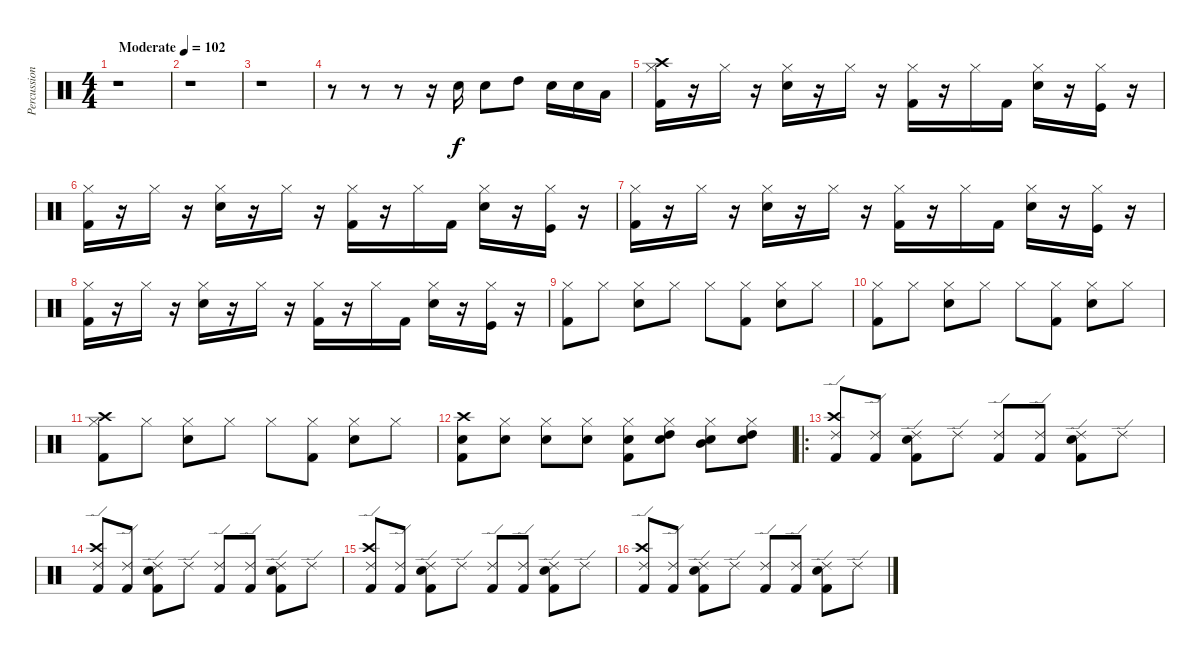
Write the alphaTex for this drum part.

\track ("Percussion" "Percussion") {instrument percussion}
\staff {score}
\articulation defaults
\ts (4 4)
\tempo (102 "Moderate")
\clef neutral
\ks c
r.1{dy f} |
r.1 |
r.1 |
r.8 r.8 r.8 r.16 "Snare (hit) 2".16 "Snare (hit) 2".8 "High Tom (hit)".8 "Snare (hit) 2".16 "Snare (hit) 2".16 "Low Tom (hit)".16 |
("Kick (hit) 2" "Hi-Hat (closed)" "Crash high (hit)").16 r.16 "Hi-Hat (closed)".16 r.16 ("Snare (hit) 2" "Hi-Hat (closed)").16 r.16 "Hi-Hat (closed)".16 r.16 ("Kick (hit) 2" "Hi-Hat (closed)").16 r.16 "Hi-Hat (closed)".16 "Kick (hit) 2".16 ("Snare (hit) 2" "Hi-Hat (closed)").16 r.16 ("Kick (hit)" "Hi-Hat (closed)").16 r.16 |
("Kick (hit) 2" "Hi-Hat (closed)").16 r.16 "Hi-Hat (closed)".16 r.16 ("Snare (hit) 2" "Hi-Hat (closed)").16 r.16 "Hi-Hat (closed)".16 r.16 ("Kick (hit) 2" "Hi-Hat (closed)").16 r.16 "Hi-Hat (closed)".16 "Kick (hit) 2".16 ("Snare (hit) 2" "Hi-Hat (closed)").16 r.16 ("Kick (hit)" "Hi-Hat (closed)").16 r.16 |
("Kick (hit) 2" "Hi-Hat (closed)").16 r.16 "Hi-Hat (closed)".16 r.16 ("Snare (hit) 2" "Hi-Hat (closed)").16 r.16 "Hi-Hat (closed)".16 r.16 ("Kick (hit) 2" "Hi-Hat (closed)").16 r.16 "Hi-Hat (closed)".16 "Kick (hit) 2".16 ("Snare (hit) 2" "Hi-Hat (closed)").16 r.16 ("Kick (hit)" "Hi-Hat (closed)").16 r.16 |
("Kick (hit) 2" "Hi-Hat (closed)").16 r.16 "Hi-Hat (closed)".16 r.16 ("Snare (hit) 2" "Hi-Hat (closed)").16 r.16 "Hi-Hat (closed)".16 r.16 ("Kick (hit) 2" "Hi-Hat (closed)").16 r.16 "Hi-Hat (closed)".16 "Kick (hit) 2".16 ("Snare (hit) 2" "Hi-Hat (closed)").16 r.16 ("Kick (hit)" "Hi-Hat (closed)").16 r.16 |
("Kick (hit) 2" "Hi-Hat (closed)").8 "Hi-Hat (closed)".8 ("Snare (hit) 2" "Hi-Hat (closed)").8 "Hi-Hat (closed)".8 "Hi-Hat (closed)".8 ("Kick (hit) 2" "Hi-Hat (closed)").8 ("Snare (hit) 2" "Hi-Hat (closed)").8 "Hi-Hat (closed)".8 |
("Kick (hit) 2" "Hi-Hat (closed)").8 "Hi-Hat (closed)".8 ("Snare (hit) 2" "Hi-Hat (closed)").8 "Hi-Hat (closed)".8 "Hi-Hat (closed)".8 ("Kick (hit) 2" "Hi-Hat (closed)").8 ("Snare (hit) 2" "Hi-Hat (closed)").8 "Hi-Hat (closed)".8 |
("Kick (hit) 2" "Hi-Hat (closed)" "Crash high (hit)").8 "Hi-Hat (closed)".8 ("Snare (hit) 2" "Hi-Hat (closed)").8 "Hi-Hat (closed)".8 "Hi-Hat (closed)".8 ("Kick (hit) 2" "Hi-Hat (closed)").8 ("Snare (hit) 2" "Hi-Hat (closed)").8 "Hi-Hat (closed)".8 |
("Kick (hit) 2" "Snare (hit) 2" "Crash high (hit)").8 ("Snare (hit) 2" "Hi-Hat (closed)").8 ("Snare (hit) 2" "Hi-Hat (closed)").8 ("Snare (hit) 2" "Hi-Hat (closed)").8 ("Kick (hit) 2" "Snare (hit) 2" "Hi-Hat (closed)").8 ("High Tom (hit)" "Snare (hit) 2" "Hi-Hat (closed)").8 ("Mid Tom (hit)" "Snare (hit) 2" "Hi-Hat (closed)").8 ("High Tom (hit)" "Snare (hit) 2" "Hi-Hat (closed)").8 |
\ro
("Kick (hit) 2" "Ride (edge) 2" "Crash high (hit)").8 ("Kick (hit) 2" "Ride (edge) 2").8 ("Kick (hit) 2" "Snare (hit) 2" "Ride (edge) 2").8 "Ride (edge) 2".8 ("Kick (hit) 2" "Ride (edge) 2").8 ("Kick (hit) 2" "Ride (edge) 2").8 ("Kick (hit) 2" "Snare (hit) 2" "Ride (edge) 2").8 "Ride (edge) 2".8 |
("Kick (hit) 2" "Ride (edge) 2" "Crash high (hit)").8 ("Kick (hit) 2" "Ride (edge) 2").8 ("Kick (hit) 2" "Snare (hit) 2" "Ride (edge) 2").8 "Ride (edge) 2".8 ("Kick (hit) 2" "Ride (edge) 2").8 ("Kick (hit) 2" "Ride (edge) 2").8 ("Kick (hit) 2" "Snare (hit) 2" "Ride (edge) 2").8 "Ride (edge) 2".8 |
("Kick (hit) 2" "Ride (edge) 2" "Crash high (hit)").8 ("Kick (hit) 2" "Ride (edge) 2").8 ("Kick (hit) 2" "Snare (hit) 2" "Ride (edge) 2").8 "Ride (edge) 2".8 ("Kick (hit) 2" "Ride (edge) 2").8 ("Kick (hit) 2" "Ride (edge) 2").8 ("Kick (hit) 2" "Snare (hit) 2" "Ride (edge) 2").8 "Ride (edge) 2".8 |
("Kick (hit) 2" "Ride (edge) 2" "Crash high (hit)").8 ("Kick (hit) 2" "Ride (edge) 2").8 ("Kick (hit) 2" "Snare (hit) 2" "Ride (edge) 2").8 "Ride (edge) 2".8 ("Kick (hit) 2" "Ride (edge) 2").8 ("Kick (hit) 2" "Ride (edge) 2").8 ("Kick (hit) 2" "Snare (hit) 2" "Ride (edge) 2").8 "Ride (edge) 2".8
